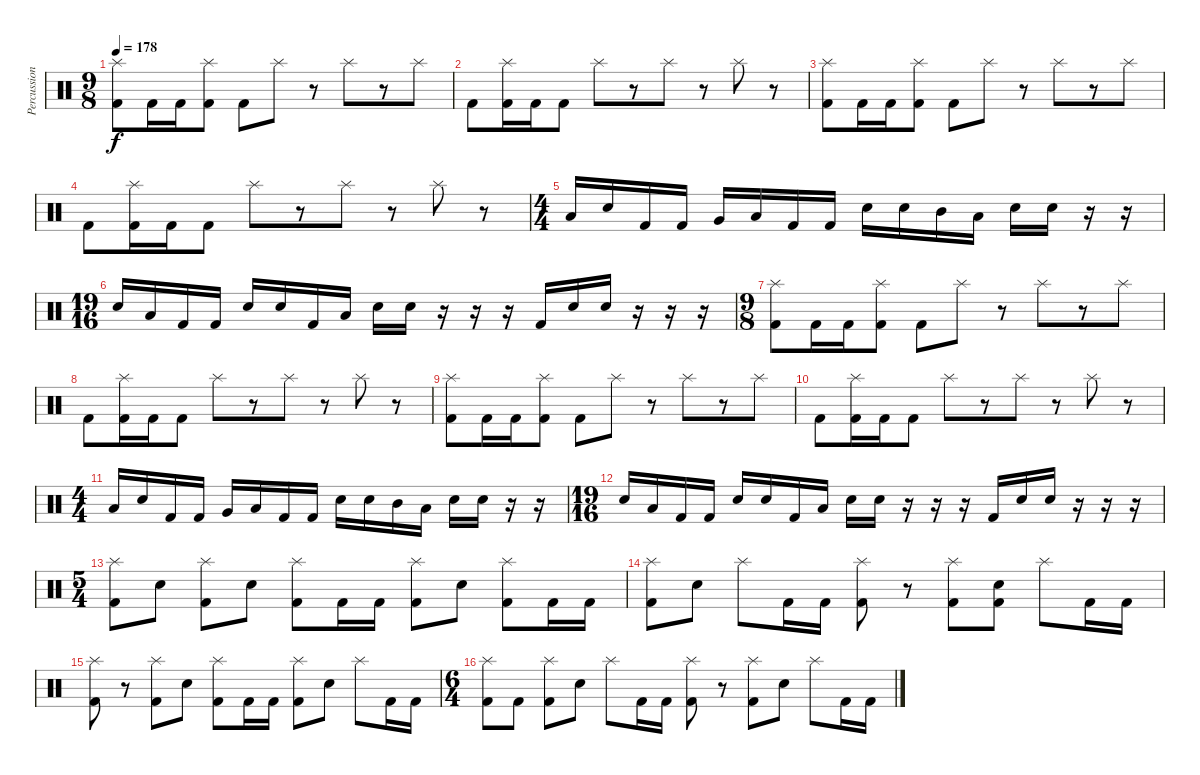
\track ("Percussion" "Percussion") {instrument percussion}
\staff {score}
\articulation defaults
\ts (9 8)
\tempo 178
\clef neutral
\ks c
("Splash (hit)" "Kick (hit) 2").8{dy f} "Kick (hit) 2".16 "Kick (hit) 2".16 ("Splash (hit)" "Kick (hit) 2").8 "Kick (hit) 2".8 "Splash (hit)".8 r.8 "Splash (hit)".8 r.8 "Splash (hit)".8 |
"Kick (hit) 2".8 ("Splash (hit)" "Kick (hit) 2").16 "Kick (hit) 2".16 "Kick (hit) 2".8 "Splash (hit)".8 r.8 "Splash (hit)".8 r.8 "Splash (hit)".8 r.8 |
("Splash (hit)" "Kick (hit) 2").8 "Kick (hit) 2".16 "Kick (hit) 2".16 ("Splash (hit)" "Kick (hit) 2").8 "Kick (hit) 2".8 "Splash (hit)".8 r.8 "Splash (hit)".8 r.8 "Splash (hit)".8 |
"Kick (hit) 2".8 ("Splash (hit)" "Kick (hit) 2").16 "Kick (hit) 2".16 "Kick (hit) 2".8 "Splash (hit)".8 r.8 "Splash (hit)".8 r.8 "Splash (hit)".8 r.8 |
\ts (4 4)
"Low Tom (hit)".16 "Electric Snare (hit)".16 "Kick (hit) 2".16 "Kick (hit) 2".16 "Very Low Tom (hit)".16 "Low Floor Tom (hit)".16 "Kick (hit) 2".16 "Kick (hit) 2".16 "Electric Snare (hit)".16 "Electric Snare (hit)".16 "Mid Tom (hit)".16 "Low Tom (hit)".16 "Electric Snare (hit)".16 "Electric Snare (hit)".16 r.16 r.16 |
\ts (19 16)
"Electric Snare (hit)".16 "Low Tom (hit)".16 "Kick (hit) 2".16 "Kick (hit) 2".16 "Electric Snare (hit)".16 "Electric Snare (hit)".16 "Kick (hit) 2".16 "Low Tom (hit)".16 "Electric Snare (hit)".16 "Electric Snare (hit)".16 r.16 r.16 r.16 "Kick (hit) 2".16 "Electric Snare (hit)".16 "Electric Snare (hit)".16 r.16 r.16 r.16 |
\ts (9 8)
("Splash (hit)" "Kick (hit) 2").8 "Kick (hit) 2".16 "Kick (hit) 2".16 ("Splash (hit)" "Kick (hit) 2").8 "Kick (hit) 2".8 "Splash (hit)".8 r.8 "Splash (hit)".8 r.8 "Splash (hit)".8 |
"Kick (hit) 2".8 ("Splash (hit)" "Kick (hit) 2").16 "Kick (hit) 2".16 "Kick (hit) 2".8 "Splash (hit)".8 r.8 "Splash (hit)".8 r.8 "Splash (hit)".8 r.8 |
("Splash (hit)" "Kick (hit) 2").8 "Kick (hit) 2".16 "Kick (hit) 2".16 ("Splash (hit)" "Kick (hit) 2").8 "Kick (hit) 2".8 "Splash (hit)".8 r.8 "Splash (hit)".8 r.8 "Splash (hit)".8 |
"Kick (hit) 2".8 ("Splash (hit)" "Kick (hit) 2").16 "Kick (hit) 2".16 "Kick (hit) 2".8 "Splash (hit)".8 r.8 "Splash (hit)".8 r.8 "Splash (hit)".8 r.8 |
\ts (4 4)
"Low Tom (hit)".16 "Electric Snare (hit)".16 "Kick (hit) 2".16 "Kick (hit) 2".16 "Very Low Tom (hit)".16 "Low Floor Tom (hit)".16 "Kick (hit) 2".16 "Kick (hit) 2".16 "Electric Snare (hit)".16 "Electric Snare (hit)".16 "Mid Tom (hit)".16 "Low Tom (hit)".16 "Electric Snare (hit)".16 "Electric Snare (hit)".16 r.16 r.16 |
\ts (19 16)
"Electric Snare (hit)".16 "Low Tom (hit)".16 "Kick (hit) 2".16 "Kick (hit) 2".16 "Electric Snare (hit)".16 "Electric Snare (hit)".16 "Kick (hit) 2".16 "Low Tom (hit)".16 "Electric Snare (hit)".16 "Electric Snare (hit)".16 r.16 r.16 r.16 "Kick (hit) 2".16 "Electric Snare (hit)".16 "Electric Snare (hit)".16 r.16 r.16 r.16 |
\ts (5 4)
("Splash (hit)" "Kick (hit) 2").8 "Electric Snare (hit)".8 ("Splash (hit)" "Kick (hit) 2").8 "Electric Snare (hit)".8 ("Splash (hit)" "Kick (hit) 2").8 "Kick (hit) 2".16 "Kick (hit) 2".16 ("Splash (hit)" "Kick (hit) 2").8 "Electric Snare (hit)".8 ("Splash (hit)" "Kick (hit) 2").8 "Kick (hit) 2".16 "Kick (hit) 2".16 |
("Splash (hit)" "Kick (hit) 2").8 "Electric Snare (hit)".8 "Splash (hit)".8 "Kick (hit) 2".16 "Kick (hit) 2".16 ("Splash (hit)" "Kick (hit) 2").8 r.8 ("Splash (hit)" "Kick (hit) 2").8 ("Electric Snare (hit)" "Kick (hit) 2").8 "Splash (hit)".8 "Kick (hit) 2".16 "Kick (hit) 2".16 |
("Splash (hit)" "Kick (hit) 2").8 r.8 ("Splash (hit)" "Kick (hit) 2").8 "Electric Snare (hit)".8 ("Splash (hit)" "Kick (hit) 2").8 "Kick (hit) 2".16 "Kick (hit) 2".16 ("Splash (hit)" "Kick (hit) 2").8 "Electric Snare (hit)".8 "Splash (hit)".8 "Kick (hit) 2".16 "Kick (hit) 2".16 |
\ts (6 4)
("Splash (hit)" "Kick (hit) 2").8 "Kick (hit) 2".8 ("Splash (hit)" "Kick (hit) 2").8 "Electric Snare (hit)".8 "Splash (hit)".8 "Kick (hit) 2".16 "Kick (hit) 2".16 ("Splash (hit)" "Kick (hit) 2").8 r.8 ("Splash (hit)" "Kick (hit) 2").8 "Electric Snare (hit)".8 "Splash (hit)".8 "Kick (hit) 2".16 "Kick (hit) 2".16
